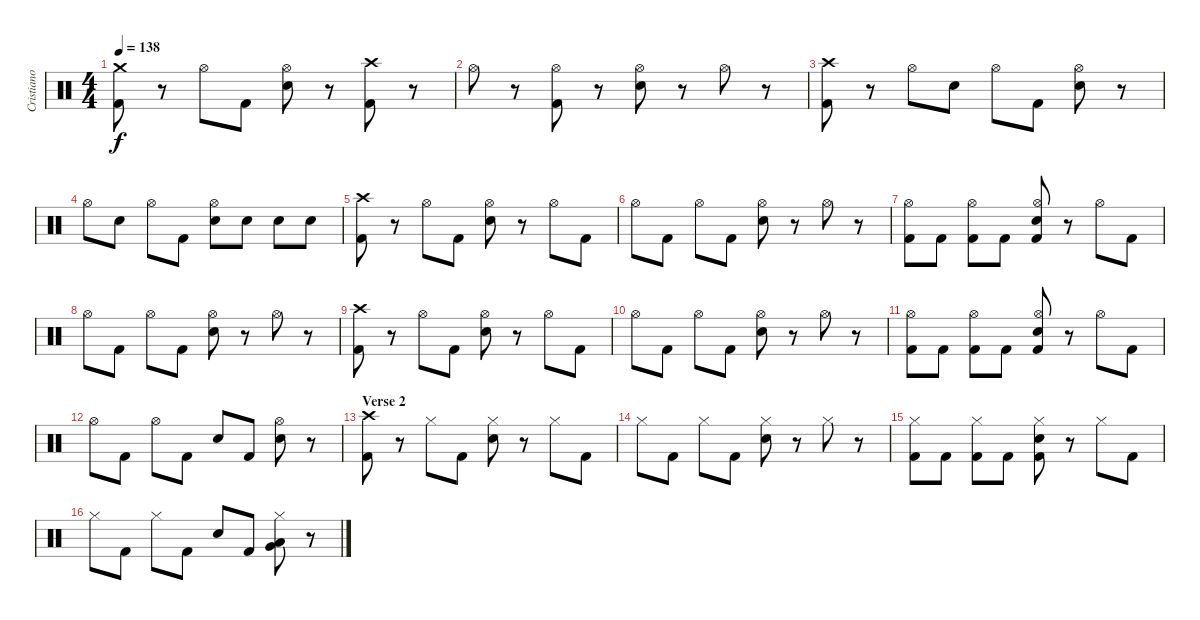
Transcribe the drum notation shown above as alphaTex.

\track ("Cristiano Mozatti" "Cristiano ") {instrument percussion}
\staff {score}
\articulation defaults
\ts (4 4)
\tempo 138
\clef neutral
\ks c
("Crash medium (hit)" "Kick (hit) 2").8{dy f} r.8 "Hi-Hat (open)".8 "Kick (hit) 2".8 ("Hi-Hat (open)" "Snare (hit) 2").8 r.8 ("Crash high (hit)" "Kick (hit) 2").8 r.8 |
"Hi-Hat (open)".8 r.8 ("Hi-Hat (open)" "Kick (hit) 2").8 r.8 ("Hi-Hat (open)" "Snare (hit) 2").8 r.8 "Hi-Hat (open)".8 r.8 |
("Crash high (hit)" "Kick (hit) 2").8 r.8 "Hi-Hat (open)".8 "Snare (hit) 2".8 "Hi-Hat (open)".8 "Kick (hit) 2".8 ("Hi-Hat (open)" "Snare (hit) 2").8 r.8 |
"Hi-Hat (open)".8 "Snare (hit) 2".8 "Hi-Hat (open)".8 "Kick (hit) 2".8 ("Hi-Hat (open)" "Snare (hit) 2").8 "Snare (hit) 2".8 "Snare (hit) 2".8 "Snare (hit) 2".8 |
("Crash high (hit)" "Kick (hit) 2").8 r.8 "Hi-Hat (open)".8 "Kick (hit) 2".8 ("Hi-Hat (open)" "Snare (hit) 2").8 r.8 "Hi-Hat (open)".8 "Kick (hit) 2".8 |
"Hi-Hat (open)".8 "Kick (hit) 2".8 "Hi-Hat (open)".8 "Kick (hit) 2".8 ("Hi-Hat (open)" "Snare (hit) 2").8 r.8 "Hi-Hat (open)".8 r.8 |
("Hi-Hat (open)" "Kick (hit) 2").8 "Kick (hit) 2".8 ("Hi-Hat (open)" "Kick (hit) 2").8 "Kick (hit) 2".8 ("Hi-Hat (open)" "Snare (hit) 2" "Kick (hit) 2").8 r.8 "Hi-Hat (open)".8 "Kick (hit) 2".8 |
"Hi-Hat (open)".8 "Kick (hit) 2".8 "Hi-Hat (open)".8 "Kick (hit) 2".8 ("Hi-Hat (open)" "Snare (hit) 2").8 r.8 "Hi-Hat (open)".8 r.8 |
("Crash high (hit)" "Kick (hit) 2").8 r.8 "Hi-Hat (open)".8 "Kick (hit) 2".8 ("Hi-Hat (open)" "Snare (hit) 2").8 r.8 "Hi-Hat (open)".8 "Kick (hit) 2".8 |
"Hi-Hat (open)".8 "Kick (hit) 2".8 "Hi-Hat (open)".8 "Kick (hit) 2".8 ("Hi-Hat (open)" "Snare (hit) 2").8 r.8 "Hi-Hat (open)".8 r.8 |
("Hi-Hat (open)" "Kick (hit) 2").8 "Kick (hit) 2".8 ("Hi-Hat (open)" "Kick (hit) 2").8 "Kick (hit) 2".8 ("Hi-Hat (open)" "Snare (hit) 2" "Kick (hit) 2").8 r.8 "Hi-Hat (open)".8 "Kick (hit) 2".8 |
"Hi-Hat (open)".8 "Kick (hit) 2".8 "Hi-Hat (open)".8 "Kick (hit) 2".8 "Snare (hit) 2".8 "Kick (hit) 2".8 ("Hi-Hat (open)" "Snare (hit) 2").8 r.8 |
\section ("" "Verse 2")
("Crash high (hit)" "Kick (hit) 2").8 r.8 "Hi-Hat (closed)".8 "Kick (hit) 2".8 ("Hi-Hat (closed)" "Snare (hit) 2").8 r.8 "Hi-Hat (closed)".8 "Kick (hit) 2".8 |
"Hi-Hat (closed)".8 "Kick (hit) 2".8 "Hi-Hat (closed)".8 "Kick (hit) 2".8 ("Hi-Hat (closed)" "Snare (hit) 2").8 r.8 "Hi-Hat (closed)".8 r.8 |
("Hi-Hat (closed)" "Kick (hit) 2").8 "Kick (hit) 2".8 ("Hi-Hat (closed)" "Kick (hit) 2").8 "Kick (hit) 2".8 ("Hi-Hat (closed)" "Snare (hit) 2" "Kick (hit) 2").8 r.8 "Hi-Hat (closed)".8 "Kick (hit) 2".8 |
"Hi-Hat (closed)".8 "Kick (hit) 2".8 "Hi-Hat (closed)".8 "Kick (hit) 2".8 "Snare (hit) 2".8 "Kick (hit) 2".8 ("Hi-Hat (closed)" "Low Floor Tom (hit)" "Very Low Tom (hit)").8 r.8
